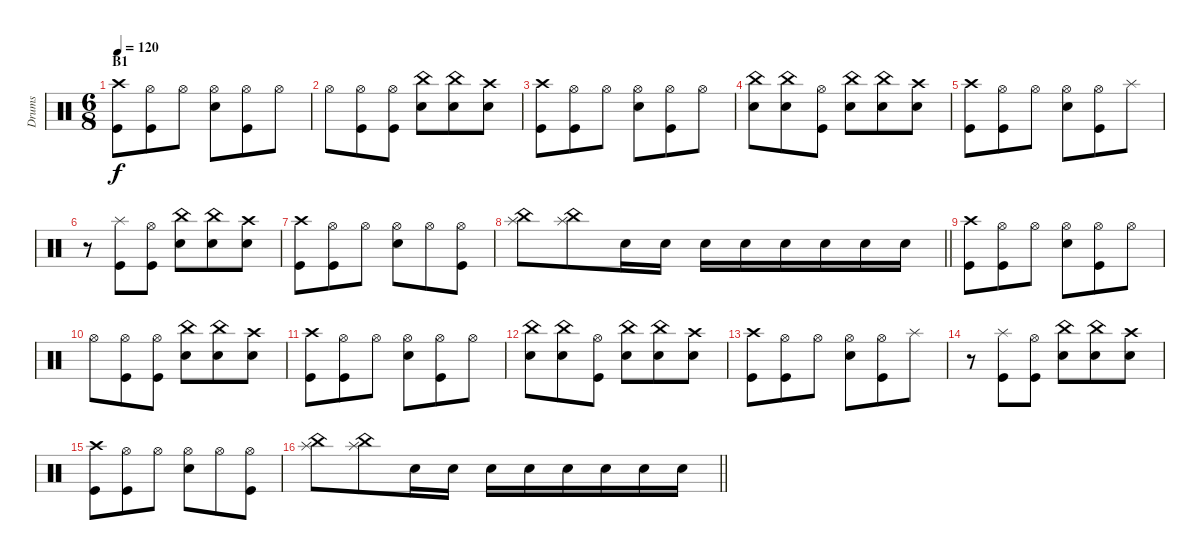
\track ("Drums" "Drums") {instrument percussion}
\staff {score}
\articulation defaults
\ts (6 8)
\section ("" "B1")
\tempo 120
\clef neutral
\ks c
("Kick (hit)" "Crash high (hit)").8{dy f} ("Kick (hit)" "Hi-Hat (open)").8 "Hi-Hat (open)".8 ("Hi-Hat (open)" "Electric Snare (hit)").8 ("Kick (hit)" "Hi-Hat (open)").8 "Hi-Hat (open)".8 |
"Hi-Hat (open)".8 ("Kick (hit)" "Hi-Hat (open)").8 ("Kick (hit)" "Hi-Hat (open)").8 ("China (hit)" "Electric Snare (hit)").8 ("China (hit)" "Electric Snare (hit)").8 ("Crash high (hit)" "Electric Snare (hit)").8 |
("Kick (hit)" "Crash high (hit)").8 ("Kick (hit)" "Hi-Hat (open)").8 "Hi-Hat (open)".8 ("Hi-Hat (open)" "Electric Snare (hit)").8 ("Kick (hit)" "Hi-Hat (open)").8 "Hi-Hat (open)".8 |
("China (hit)" "Electric Snare (hit)").8 ("China (hit)" "Electric Snare (hit)").8 ("Kick (hit)" "Hi-Hat (open)").8 ("China (hit)" "Electric Snare (hit)").8 ("China (hit)" "Electric Snare (hit)").8 ("Crash high (hit)" "Electric Snare (hit)").8 |
("Kick (hit)" "Crash high (hit)").8 ("Kick (hit)" "Hi-Hat (open)").8 "Hi-Hat (open)".8 ("Hi-Hat (open)" "Electric Snare (hit)").8 ("Kick (hit)" "Hi-Hat (open)").8 "Splash (hit)".8 |
r.8 ("Kick (hit)" "Splash (hit)").8 ("Kick (hit)" "Hi-Hat (open)").8 ("China (hit)" "Electric Snare (hit)").8 ("China (hit)" "Electric Snare (hit)").8 ("Crash high (hit)" "Electric Snare (hit)").8 |
("Kick (hit)" "Crash high (hit)").8 ("Kick (hit)" "Hi-Hat (open)").8 "Hi-Hat (open)".8 ("Hi-Hat (open)" "Electric Snare (hit)").8 "Hi-Hat (open)".8 ("Kick (hit)" "Hi-Hat (open)").8 |
\barLineRight lightlight
("China (hit)" "Splash (hit)").8 ("China (hit)" "Splash (hit)").8 "Electric Snare (hit)".16 "Electric Snare (hit)".16 "Electric Snare (hit)".16 "Electric Snare (hit)".16 "Electric Snare (hit)".16 "Electric Snare (hit)".16 "Electric Snare (hit)".16 "Electric Snare (hit)".16 |
("Kick (hit)" "Crash high (hit)").8 ("Kick (hit)" "Hi-Hat (open)").8 "Hi-Hat (open)".8 ("Hi-Hat (open)" "Electric Snare (hit)").8 ("Kick (hit)" "Hi-Hat (open)").8 "Hi-Hat (open)".8 |
"Hi-Hat (open)".8 ("Kick (hit)" "Hi-Hat (open)").8 ("Kick (hit)" "Hi-Hat (open)").8 ("China (hit)" "Electric Snare (hit)").8 ("China (hit)" "Electric Snare (hit)").8 ("Crash high (hit)" "Electric Snare (hit)").8 |
("Kick (hit)" "Crash high (hit)").8 ("Kick (hit)" "Hi-Hat (open)").8 "Hi-Hat (open)".8 ("Hi-Hat (open)" "Electric Snare (hit)").8 ("Kick (hit)" "Hi-Hat (open)").8 "Hi-Hat (open)".8 |
("China (hit)" "Electric Snare (hit)").8 ("China (hit)" "Electric Snare (hit)").8 ("Kick (hit)" "Hi-Hat (open)").8 ("China (hit)" "Electric Snare (hit)").8 ("China (hit)" "Electric Snare (hit)").8 ("Crash high (hit)" "Electric Snare (hit)").8 |
("Kick (hit)" "Crash high (hit)").8 ("Kick (hit)" "Hi-Hat (open)").8 "Hi-Hat (open)".8 ("Hi-Hat (open)" "Electric Snare (hit)").8 ("Kick (hit)" "Hi-Hat (open)").8 "Splash (hit)".8 |
r.8 ("Kick (hit)" "Splash (hit)").8 ("Kick (hit)" "Hi-Hat (open)").8 ("China (hit)" "Electric Snare (hit)").8 ("China (hit)" "Electric Snare (hit)").8 ("Crash high (hit)" "Electric Snare (hit)").8 |
("Kick (hit)" "Crash high (hit)").8 ("Kick (hit)" "Hi-Hat (open)").8 "Hi-Hat (open)".8 ("Hi-Hat (open)" "Electric Snare (hit)").8 "Hi-Hat (open)".8 ("Kick (hit)" "Hi-Hat (open)").8 |
\barLineRight lightlight
("China (hit)" "Splash (hit)").8 ("China (hit)" "Splash (hit)").8 "Electric Snare (hit)".16 "Electric Snare (hit)".16 "Electric Snare (hit)".16 "Electric Snare (hit)".16 "Electric Snare (hit)".16 "Electric Snare (hit)".16 "Electric Snare (hit)".16 "Electric Snare (hit)".16
